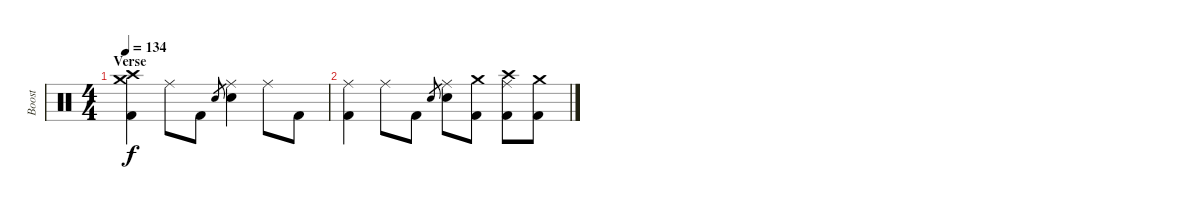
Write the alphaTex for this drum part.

\track ("Boost" "Boost") {instrument percussion}
\staff {score}
\articulation defaults
\ts (4 4)
\section ("" "Verse")
\tempo 134
\clef neutral
\ks c
("Crash medium (hit)" "Crash high (hit)" "Kick (hit) 2").4{dy f} "Ride (middle)".8 "Kick (hit) 2".8 "Snare (hit) 2".8{gr} ("Ride (middle)" "Snare (hit) 2").4 "Ride (middle)".8 "Kick (hit) 2".8 |
("Ride (middle)" "Kick (hit) 2").4 "Ride (middle)".8 "Kick (hit) 2".8 "Snare (hit) 2".8{gr} ("Ride (middle)" "Snare (hit) 2").8 ("Crash medium (hit)" "Kick (hit) 2").8 ("Crash high (hit)" "Ride (middle)" "Kick (hit) 2").8 ("Crash medium (hit)" "Kick (hit) 2").8
